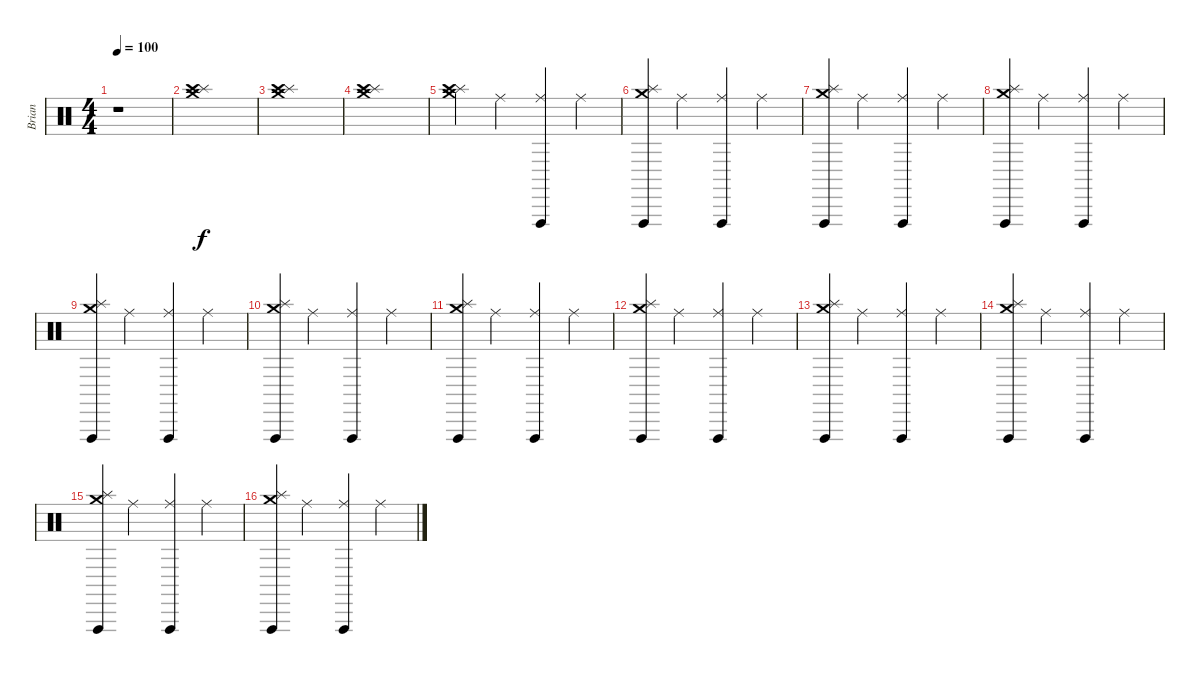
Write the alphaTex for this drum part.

\track ("Brian" "Brian") {instrument percussion}
\staff {score}
\articulation defaults
\ts (4 4)
\tempo 100
\clef neutral
\ks c
r.1{dy f} |
("Crash medium (hit)" "Splash (hit)" "Crash high (hit)").1 |
("Crash medium (hit)" "Splash (hit)" "Crash high (hit)").1 |
("Crash medium (hit)" "Splash (hit)" "Crash high (hit)").1 |
("Crash medium (hit)" "Splash (hit)" "Crash high (hit)").4 "Ride (middle)".4 ("Vibraslap (hit)" "Ride (middle)").4 "Ride (middle)".4 |
("Crash medium (hit)" "Vibraslap (hit)" "Splash (hit)").4 "Ride (middle)".4 ("Vibraslap (hit)" "Ride (middle)").4 "Ride (middle)".4 |
("Crash medium (hit)" "Vibraslap (hit)" "Splash (hit)").4 "Ride (middle)".4 ("Vibraslap (hit)" "Ride (middle)").4 "Ride (middle)".4 |
("Crash medium (hit)" "Vibraslap (hit)" "Splash (hit)").4 "Ride (middle)".4 ("Vibraslap (hit)" "Ride (middle)").4 "Ride (middle)".4 |
("Crash medium (hit)" "Vibraslap (hit)" "Splash (hit)").4 "Ride (middle)".4 ("Vibraslap (hit)" "Ride (middle)").4 "Ride (middle)".4 |
("Crash medium (hit)" "Vibraslap (hit)" "Splash (hit)").4 "Ride (middle)".4 ("Vibraslap (hit)" "Ride (middle)").4 "Ride (middle)".4 |
("Crash medium (hit)" "Vibraslap (hit)" "Splash (hit)").4 "Ride (middle)".4 ("Vibraslap (hit)" "Ride (middle)").4 "Ride (middle)".4 |
("Crash medium (hit)" "Vibraslap (hit)" "Splash (hit)").4 "Ride (middle)".4 ("Vibraslap (hit)" "Ride (middle)").4 "Ride (middle)".4 |
("Crash medium (hit)" "Vibraslap (hit)" "Splash (hit)").4 "Ride (middle)".4 ("Vibraslap (hit)" "Ride (middle)").4 "Ride (middle)".4 |
("Crash medium (hit)" "Vibraslap (hit)" "Splash (hit)").4 "Ride (middle)".4 ("Vibraslap (hit)" "Ride (middle)").4 "Ride (middle)".4 |
("Crash medium (hit)" "Vibraslap (hit)" "Splash (hit)").4 "Ride (middle)".4 ("Vibraslap (hit)" "Ride (middle)").4 "Ride (middle)".4 |
("Crash medium (hit)" "Vibraslap (hit)" "Splash (hit)").4 "Ride (middle)".4 ("Vibraslap (hit)" "Ride (middle)").4 "Ride (middle)".4
